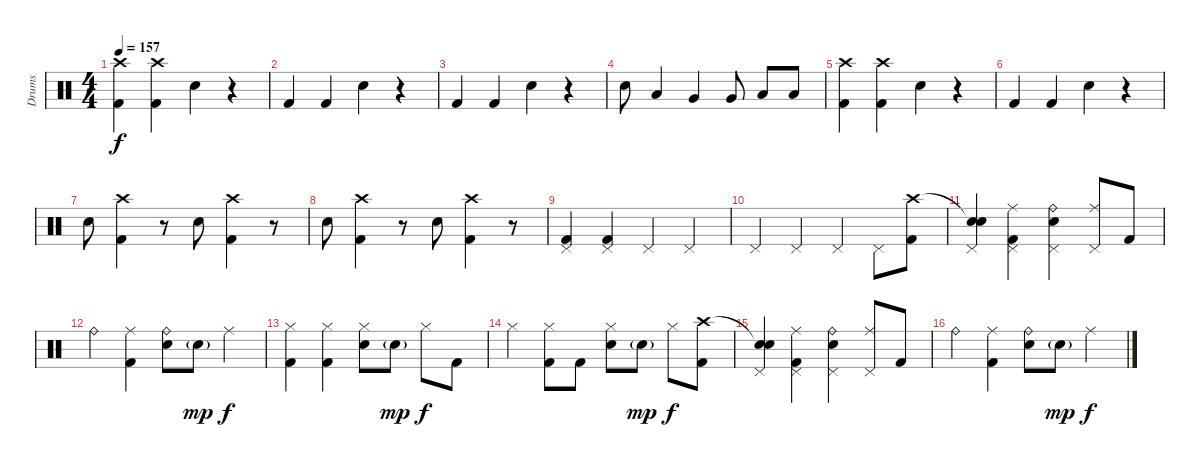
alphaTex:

\track ("Drums" "Drums") {instrument percussion}
\staff {score}
\articulation defaults
\ts (4 4)
\tempo 157
\clef neutral
\ks c
("Crash high (hit)" "Kick (hit) 2").4{dy f} ("Crash high (hit)" "Kick (hit) 2").4 "Snare (hit) 2".4 r.4 |
"Kick (hit) 2".4 "Kick (hit) 2".4 "Snare (hit) 2".4 r.4 |
"Kick (hit) 2".4 "Kick (hit) 2".4 "Snare (hit) 2".4 r.4 |
"Snare (hit) 2".8 "Low Tom (hit)".4 "Very Low Tom (hit)".4 "Very Low Tom (hit)".8 "Low Floor Tom (hit)".8 "Low Floor Tom (hit)".8 |
("Crash high (hit)" "Kick (hit) 2").4 ("Crash high (hit)" "Kick (hit) 2").4 "Snare (hit) 2".4 r.4 |
"Kick (hit) 2".4 "Kick (hit) 2".4 "Snare (hit) 2".4 r.4 |
"Snare (hit) 2".8 ("Crash high (hit)" "Kick (hit) 2").4 r.8 "Snare (hit) 2".8 ("Crash high (hit)" "Kick (hit) 2").4 r.8 |
"Snare (hit) 2".8 ("Crash high (hit)" "Kick (hit) 2").4 r.8 "Snare (hit) 2".8 ("Crash high (hit)" "Kick (hit) 2").4 r.8 |
("Pedal Hi-Hat (hit)" "Kick (hit) 2").4 ("Pedal Hi-Hat (hit)" "Kick (hit) 2").4 "Pedal Hi-Hat (hit)".4 "Pedal Hi-Hat (hit)".4 |
"Pedal Hi-Hat (hit)".4 "Pedal Hi-Hat (hit)".4 "Pedal Hi-Hat (hit)".4 "Pedal Hi-Hat (hit)".8 ("Crash high (hit)" "Kick (hit) 2").8 |
("Snare (hit)"{t} "Pedal Hi-Hat (hit)" "Snare (hit)").4 ("Ride (middle)" "Pedal Hi-Hat (hit)" "Kick (hit) 2").4 ("Ride (bell)" "Snare (hit) 2" "Pedal Hi-Hat (hit)").4 ("Ride (middle)" "Pedal Hi-Hat (hit)").8 "Kick (hit) 2".8 |
"Ride (bell)".4 ("Ride (middle)" "Kick (hit) 2").4 ("Ride (bell)" "Snare (hit) 2").8 "Snare (hit) 2"{g}.8{dy mp} "Ride (middle)".4{dy f} |
("Hi-Hat (closed)" "Kick (hit) 2").4 ("Hi-Hat (closed)" "Kick (hit) 2").4 ("Hi-Hat (closed)" "Snare (hit) 2").8 "Snare (hit) 2"{g}.8{dy mp} "Hi-Hat (closed)".8{dy f} "Kick (hit) 2".8 |
"Hi-Hat (closed)".4 ("Hi-Hat (closed)" "Kick (hit) 2").8 "Kick (hit) 2".8 ("Hi-Hat (closed)" "Snare (hit) 2").8 "Snare (hit) 2"{g}.8{dy mp} "Hi-Hat (closed)".8{dy f} ("Crash high (hit)" "Kick (hit) 2").8 |
("Snare (hit)"{t} "Pedal Hi-Hat (hit)" "Snare (hit)").4 ("Ride (middle)" "Pedal Hi-Hat (hit)" "Kick (hit) 2").4 ("Ride (bell)" "Snare (hit) 2" "Pedal Hi-Hat (hit)").4 ("Ride (middle)" "Pedal Hi-Hat (hit)").8 "Kick (hit) 2".8 |
"Ride (bell)".4 ("Ride (middle)" "Kick (hit) 2").4 ("Ride (bell)" "Snare (hit) 2").8 "Snare (hit) 2"{g}.8{dy mp} "Ride (middle)".4{dy f}
